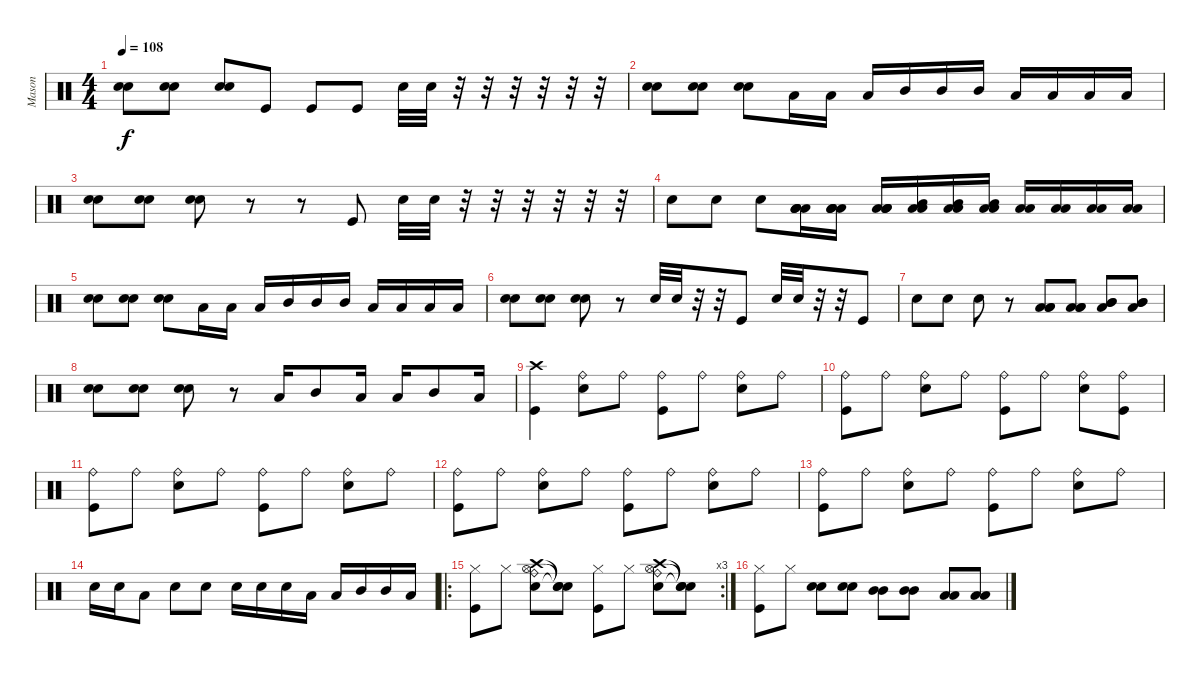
\track ("Mason" "Mason") {instrument percussion}
\staff {score}
\articulation defaults
\ts (4 4)
\tempo 108
\clef neutral
\ks c
("Snare (hit) 2" "Snare (hit) 2").8{dy f} ("Snare (hit) 2" "Snare (hit) 2").8 ("Snare (hit) 2" "Snare (hit) 2").8 "Kick (hit)".8 "Kick (hit)".8 "Kick (hit)".8 "Snare (hit) 2".32 "Snare (hit) 2".32 r.32 r.32 r.32 r.32 r.32 r.32 |
("Snare (hit) 2" "Snare (hit) 2").8 ("Snare (hit) 2" "Snare (hit) 2").8 ("Snare (hit) 2" "Snare (hit) 2").8 "Low Tom (hit)".16 "Low Tom (hit)".16 "Low Tom (hit)".16 "Mid Tom (hit)".16 "Mid Tom (hit)".16 "Mid Tom (hit)".16 "Low Floor Tom (hit)".16 "Low Floor Tom (hit)".16 "Low Floor Tom (hit)".16 "Low Floor Tom (hit)".16 |
("Snare (hit) 2" "Snare (hit) 2").8 ("Snare (hit) 2" "Snare (hit) 2").8 ("Snare (hit) 2" "Snare (hit) 2").8 r.8 r.8 "Kick (hit)".8 "Snare (hit) 2".32 "Snare (hit) 2".32 r.32 r.32 r.32 r.32 r.32 r.32 |
"Snare (hit) 2".8 "Snare (hit) 2".8 "Snare (hit) 2".8 ("Low Tom (hit)" "Low Tom (hit)" "Low Floor Tom (hit)" "Low Floor Tom (hit)").16 ("Low Tom (hit)" "Low Tom (hit)" "Low Floor Tom (hit)" "Low Floor Tom (hit)").16 ("Low Tom (hit)" "Low Tom (hit)" "Low Floor Tom (hit)" "Low Floor Tom (hit)").16 ("Mid Tom (hit)" "Low Floor Tom (hit)" "Low Floor Tom (hit)").16 ("Mid Tom (hit)" "Low Floor Tom (hit)" "Low Floor Tom (hit)").16 ("Mid Tom (hit)" "Low Floor Tom (hit)" "Low Floor Tom (hit)").16 ("Low Floor Tom (hit)" "Low Floor Tom (hit)").16 ("Low Floor Tom (hit)" "Low Floor Tom (hit)").16 ("Low Floor Tom (hit)" "Low Floor Tom (hit)").16 ("Low Floor Tom (hit)" "Low Floor Tom (hit)").16 |
("Snare (hit) 2" "Snare (hit) 2").8 ("Snare (hit) 2" "Snare (hit) 2").8 ("Snare (hit) 2" "Snare (hit) 2").8 "Low Tom (hit)".16 "Low Tom (hit)".16 "Low Tom (hit)".16 "Mid Tom (hit)".16 "Mid Tom (hit)".16 "Mid Tom (hit)".16 "Low Floor Tom (hit)".16 "Low Floor Tom (hit)".16 "Low Floor Tom (hit)".16 "Low Floor Tom (hit)".16 |
("Snare (hit) 2" "Snare (hit) 2").8 ("Snare (hit) 2" "Snare (hit) 2").8 ("Snare (hit) 2" "Snare (hit) 2").8 r.8 "Snare (hit) 2".32 "Snare (hit) 2".32 r.32 r.32 "Kick (hit)".8 "Snare (hit) 2".32 "Snare (hit) 2".32 r.32 r.32 "Kick (hit)".8 |
"Snare (hit) 2".8 "Snare (hit) 2".8 "Snare (hit) 2".8 r.8 ("Low Tom (hit)" "Low Tom (hit)" "Low Floor Tom (hit)").8 ("Low Tom (hit)" "Low Tom (hit)" "Low Floor Tom (hit)").8 ("Mid Tom (hit)" "Mid Tom (hit)" "Low Floor Tom (hit)").8 ("Mid Tom (hit)" "Mid Tom (hit)" "Low Floor Tom (hit)").8 |
("Snare (hit) 2" "Snare (hit) 2").8 ("Snare (hit) 2" "Snare (hit) 2").8 ("Snare (hit) 2" "Snare (hit) 2").8 r.8 "Low Tom (hit)".16 "Mid Tom (hit)".8 "Low Floor Tom (hit)".16 "Low Tom (hit)".16 "Mid Tom (hit)".8 "Low Floor Tom (hit)".16 |
("Kick (hit)" "Crash high (hit)").4 ("Snare (hit) 2" "Ride (bell)").8 "Ride (bell)".8 ("Kick (hit)" "Ride (bell)").8 "Ride (bell)".8 ("Snare (hit) 2" "Ride (bell)").8 "Ride (bell)".8 |
("Kick (hit)" "Ride (bell)").8 "Ride (bell)".8 ("Snare (hit) 2" "Ride (bell)").8 "Ride (bell)".8 ("Kick (hit)" "Ride (bell)").8 "Ride (bell)".8 ("Snare (hit) 2" "Ride (bell)").8 ("Kick (hit)" "Ride (bell)").8 |
("Kick (hit)" "Ride (bell)").8 "Ride (bell)".8 ("Snare (hit) 2" "Ride (bell)").8 "Ride (bell)".8 ("Kick (hit)" "Ride (bell)").8 "Ride (bell)".8 ("Snare (hit) 2" "Ride (bell)").8 "Ride (bell)".8 |
("Kick (hit)" "Ride (bell)").8 "Ride (bell)".8 ("Snare (hit) 2" "Ride (bell)").8 "Ride (bell)".8 ("Kick (hit)" "Ride (bell)").8 "Ride (bell)".8 ("Snare (hit) 2" "Ride (bell)").8 "Ride (bell)".8 |
("Kick (hit)" "Ride (bell)").8 "Ride (bell)".8 ("Snare (hit) 2" "Ride (bell)").8 "Ride (bell)".8 ("Kick (hit)" "Ride (bell)").8 "Ride (bell)".8 ("Snare (hit) 2" "Ride (bell)").8 "Ride (bell)".8 |
"Snare (hit) 2".16 "Snare (hit) 2".16 "Low Tom (hit)".8 "Snare (hit) 2".8 "Snare (hit) 2".8 "Snare (hit) 2".16 "Snare (hit) 2".16 "Snare (hit) 2".16 "Low Tom (hit)".16 "Low Tom (hit)".16 "Mid Tom (hit)".16 "Mid Tom (hit)".16 "Low Floor Tom (hit)".16 |
\ro
\rc 3
("Kick (hit)" "Hi-Hat (closed)").8 "Hi-Hat (closed)".8 ("Snare (hit) 2" "Hi-Hat (open)" "Crash high (hit)" "Ride (bell)").8 ("Snare (hit)"{t} "Snare (hit)"{t} "Snare (hit)"{t}).8 ("Kick (hit)" "Hi-Hat (closed)").8 "Hi-Hat (closed)".8 ("Snare (hit) 2" "Hi-Hat (open)" "Crash high (hit)" "Ride (bell)").8 ("Snare (hit)"{t} "Snare (hit)"{t} "Snare (hit)"{t}).8 |
("Kick (hit)" "Hi-Hat (closed)").8 "Hi-Hat (closed)".8 ("Snare (hit) 2" "Snare (hit) 2").8 ("Snare (hit) 2" "Snare (hit) 2").8 ("Mid Tom (hit)" "Mid Tom (hit)").8 ("Mid Tom (hit)" "Mid Tom (hit)").8 ("Low Floor Tom (hit)" "Low Floor Tom (hit)").8 ("Low Floor Tom (hit)" "Low Floor Tom (hit)").8
